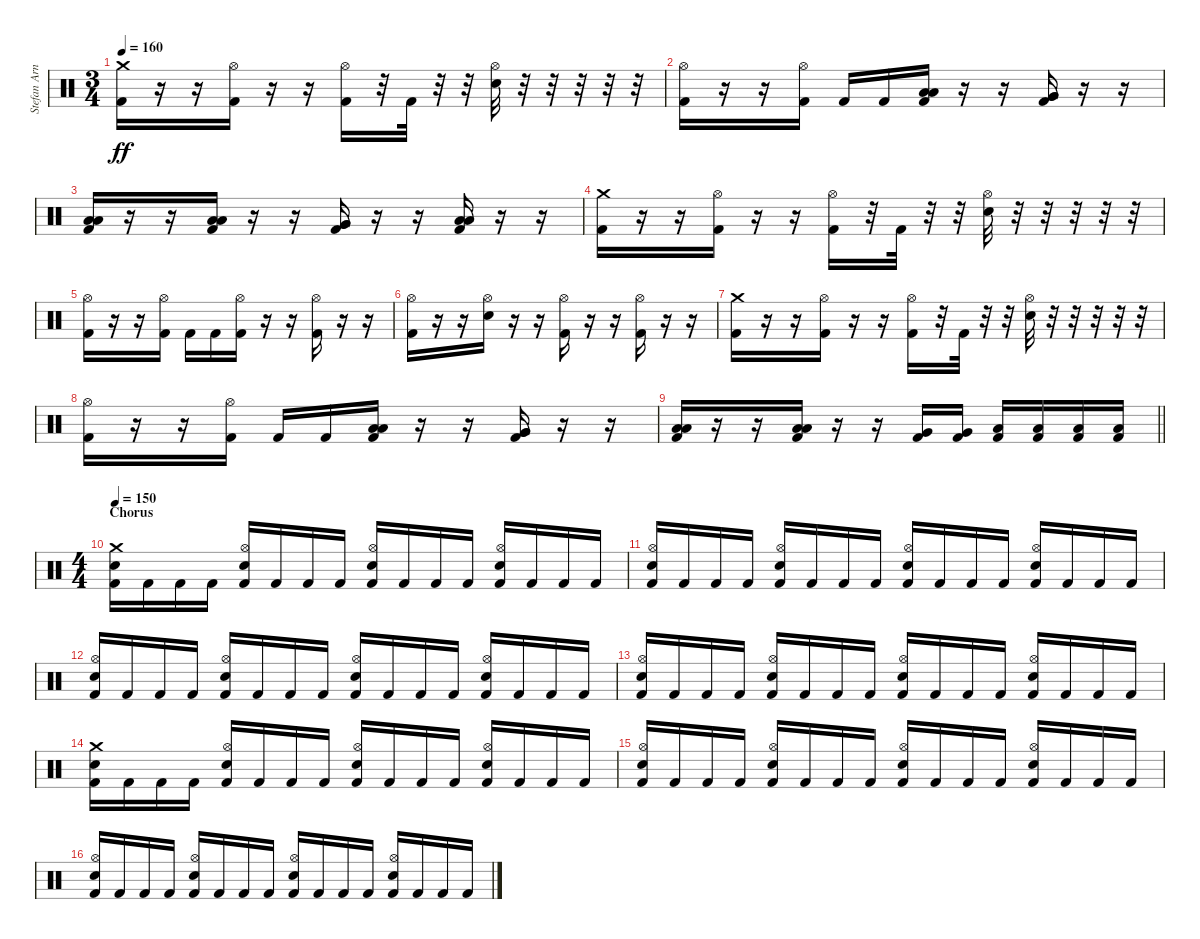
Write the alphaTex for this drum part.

\track ("Stefan Arnold" "Stefan Arn") {instrument percussion}
\staff {score}
\articulation defaults
\ts (3 4)
\tempo 160
\clef neutral
\ks c
("Crash medium (hit)" "Kick (hit) 2").16{dy ff} r.16 r.16 ("Hi-Hat (open)" "Kick (hit) 2").16 r.16 r.16 ("Hi-Hat (open)" "Kick (hit) 2").16 r.32 "Kick (hit) 2".32 r.32 r.32 ("Hi-Hat (open)" "Electric Snare (hit)").32 r.32 r.32 r.32 r.32 r.32 |
("Hi-Hat (open)" "Kick (hit) 2").16 r.16 r.16 ("Hi-Hat (open)" "Kick (hit) 2").16 "Kick (hit) 2".16 "Kick (hit) 2".16 ("Low Tom (hit)" "Low Tom (hit)" "Kick (hit) 2").16 r.16 r.16 ("Very Low Tom (hit)" "Very Low Tom (hit)" "Kick (hit) 2").16 r.16 r.16 |
("Low Floor Tom (hit)" "Low Floor Tom (hit)" "Kick (hit) 2").16 r.16 r.16 ("Low Tom (hit)" "Low Tom (hit)" "Kick (hit) 2").16 r.16 r.16 ("Very Low Tom (hit)" "Very Low Tom (hit)" "Kick (hit) 2").16 r.16 r.16 ("Low Floor Tom (hit)" "Low Floor Tom (hit)" "Kick (hit) 2").16 r.16 r.16 |
("Crash medium (hit)" "Kick (hit) 2").16 r.16 r.16 ("Hi-Hat (open)" "Kick (hit) 2").16 r.16 r.16 ("Hi-Hat (open)" "Kick (hit) 2").16 r.32 "Kick (hit) 2".32 r.32 r.32 ("Hi-Hat (open)" "Electric Snare (hit)").32 r.32 r.32 r.32 r.32 r.32 |
("Hi-Hat (open)" "Kick (hit) 2").16 r.16 r.16 ("Hi-Hat (open)" "Kick (hit) 2").16 "Kick (hit) 2".16 "Kick (hit) 2".16 ("Hi-Hat (open)" "Kick (hit) 2").16 r.16 r.16 ("Hi-Hat (open)" "Kick (hit) 2").16 r.16 r.16 |
("Hi-Hat (open)" "Kick (hit) 2").16 r.16 r.16 ("Hi-Hat (open)" "Electric Snare (hit)").16 r.16 r.16 ("Hi-Hat (open)" "Kick (hit) 2").16 r.16 r.16 ("Hi-Hat (open)" "Kick (hit) 2").16 r.16 r.16 |
("Crash medium (hit)" "Kick (hit) 2").16 r.16 r.16 ("Hi-Hat (open)" "Kick (hit) 2").16 r.16 r.16 ("Hi-Hat (open)" "Kick (hit) 2").16 r.32 "Kick (hit) 2".32 r.32 r.32 ("Hi-Hat (open)" "Electric Snare (hit)").32 r.32 r.32 r.32 r.32 r.32 |
("Hi-Hat (open)" "Kick (hit) 2").16 r.16 r.16 ("Hi-Hat (open)" "Kick (hit) 2").16 "Kick (hit) 2".16 "Kick (hit) 2".16 ("Low Tom (hit)" "Low Tom (hit)" "Kick (hit) 2").16 r.16 r.16 ("Very Low Tom (hit)" "Very Low Tom (hit)" "Kick (hit) 2").16 r.16 r.16 |
\barLineRight lightlight
("Low Floor Tom (hit)" "Low Floor Tom (hit)" "Kick (hit) 2").16 r.16 r.16 ("Low Tom (hit)" "Low Tom (hit)" "Kick (hit) 2").16 r.16 r.16 ("Very Low Tom (hit)" "Kick (hit) 2").16 ("Very Low Tom (hit)" "Kick (hit) 2").16 ("Low Tom (hit)" "Kick (hit) 2").16 ("Low Tom (hit)" "Kick (hit) 2").16 ("Low Tom (hit)" "Kick (hit) 2").16 ("Low Floor Tom (hit)" "Kick (hit) 2").16 |
\ts (4 4)
\section ("" "Chorus")
\tempo 150
("Crash medium (hit)" "Electric Snare (hit)" "Kick (hit) 2").16 "Kick (hit) 2".16 "Kick (hit) 2".16 "Kick (hit) 2".16 ("Hi-Hat (open)" "Electric Snare (hit)" "Kick (hit) 2").16 "Kick (hit) 2".16 "Kick (hit) 2".16 "Kick (hit) 2".16 ("Hi-Hat (open)" "Electric Snare (hit)" "Kick (hit) 2").16 "Kick (hit) 2".16 "Kick (hit) 2".16 "Kick (hit) 2".16 ("Hi-Hat (open)" "Electric Snare (hit)" "Kick (hit) 2").16 "Kick (hit) 2".16 "Kick (hit) 2".16 "Kick (hit) 2".16 |
("Hi-Hat (open)" "Electric Snare (hit)" "Kick (hit) 2").16 "Kick (hit) 2".16 "Kick (hit) 2".16 "Kick (hit) 2".16 ("Hi-Hat (open)" "Electric Snare (hit)" "Kick (hit) 2").16 "Kick (hit) 2".16 "Kick (hit) 2".16 "Kick (hit) 2".16 ("Hi-Hat (open)" "Electric Snare (hit)" "Kick (hit) 2").16 "Kick (hit) 2".16 "Kick (hit) 2".16 "Kick (hit) 2".16 ("Hi-Hat (open)" "Electric Snare (hit)" "Kick (hit) 2").16 "Kick (hit) 2".16 "Kick (hit) 2".16 "Kick (hit) 2".16 |
("Hi-Hat (open)" "Electric Snare (hit)" "Kick (hit) 2").16 "Kick (hit) 2".16 "Kick (hit) 2".16 "Kick (hit) 2".16 ("Hi-Hat (open)" "Electric Snare (hit)" "Kick (hit) 2").16 "Kick (hit) 2".16 "Kick (hit) 2".16 "Kick (hit) 2".16 ("Hi-Hat (open)" "Electric Snare (hit)" "Kick (hit) 2").16 "Kick (hit) 2".16 "Kick (hit) 2".16 "Kick (hit) 2".16 ("Hi-Hat (open)" "Electric Snare (hit)" "Kick (hit) 2").16 "Kick (hit) 2".16 "Kick (hit) 2".16 "Kick (hit) 2".16 |
("Hi-Hat (open)" "Electric Snare (hit)" "Kick (hit) 2").16 "Kick (hit) 2".16 "Kick (hit) 2".16 "Kick (hit) 2".16 ("Hi-Hat (open)" "Electric Snare (hit)" "Kick (hit) 2").16 "Kick (hit) 2".16 "Kick (hit) 2".16 "Kick (hit) 2".16 ("Hi-Hat (open)" "Electric Snare (hit)" "Kick (hit) 2").16 "Kick (hit) 2".16 "Kick (hit) 2".16 "Kick (hit) 2".16 ("Hi-Hat (open)" "Electric Snare (hit)" "Kick (hit) 2").16 "Kick (hit) 2".16 "Kick (hit) 2".16 "Kick (hit) 2".16 |
("Crash medium (hit)" "Electric Snare (hit)" "Kick (hit) 2").16 "Kick (hit) 2".16 "Kick (hit) 2".16 "Kick (hit) 2".16 ("Hi-Hat (open)" "Electric Snare (hit)" "Kick (hit) 2").16 "Kick (hit) 2".16 "Kick (hit) 2".16 "Kick (hit) 2".16 ("Hi-Hat (open)" "Electric Snare (hit)" "Kick (hit) 2").16 "Kick (hit) 2".16 "Kick (hit) 2".16 "Kick (hit) 2".16 ("Hi-Hat (open)" "Electric Snare (hit)" "Kick (hit) 2").16 "Kick (hit) 2".16 "Kick (hit) 2".16 "Kick (hit) 2".16 |
("Hi-Hat (open)" "Electric Snare (hit)" "Kick (hit) 2").16 "Kick (hit) 2".16 "Kick (hit) 2".16 "Kick (hit) 2".16 ("Hi-Hat (open)" "Electric Snare (hit)" "Kick (hit) 2").16 "Kick (hit) 2".16 "Kick (hit) 2".16 "Kick (hit) 2".16 ("Hi-Hat (open)" "Electric Snare (hit)" "Kick (hit) 2").16 "Kick (hit) 2".16 "Kick (hit) 2".16 "Kick (hit) 2".16 ("Hi-Hat (open)" "Electric Snare (hit)" "Kick (hit) 2").16 "Kick (hit) 2".16 "Kick (hit) 2".16 "Kick (hit) 2".16 |
("Hi-Hat (open)" "Electric Snare (hit)" "Kick (hit) 2").16 "Kick (hit) 2".16 "Kick (hit) 2".16 "Kick (hit) 2".16 ("Hi-Hat (open)" "Electric Snare (hit)" "Kick (hit) 2").16 "Kick (hit) 2".16 "Kick (hit) 2".16 "Kick (hit) 2".16 ("Hi-Hat (open)" "Electric Snare (hit)" "Kick (hit) 2").16 "Kick (hit) 2".16 "Kick (hit) 2".16 "Kick (hit) 2".16 ("Hi-Hat (open)" "Electric Snare (hit)" "Kick (hit) 2").16 "Kick (hit) 2".16 "Kick (hit) 2".16 "Kick (hit) 2".16
